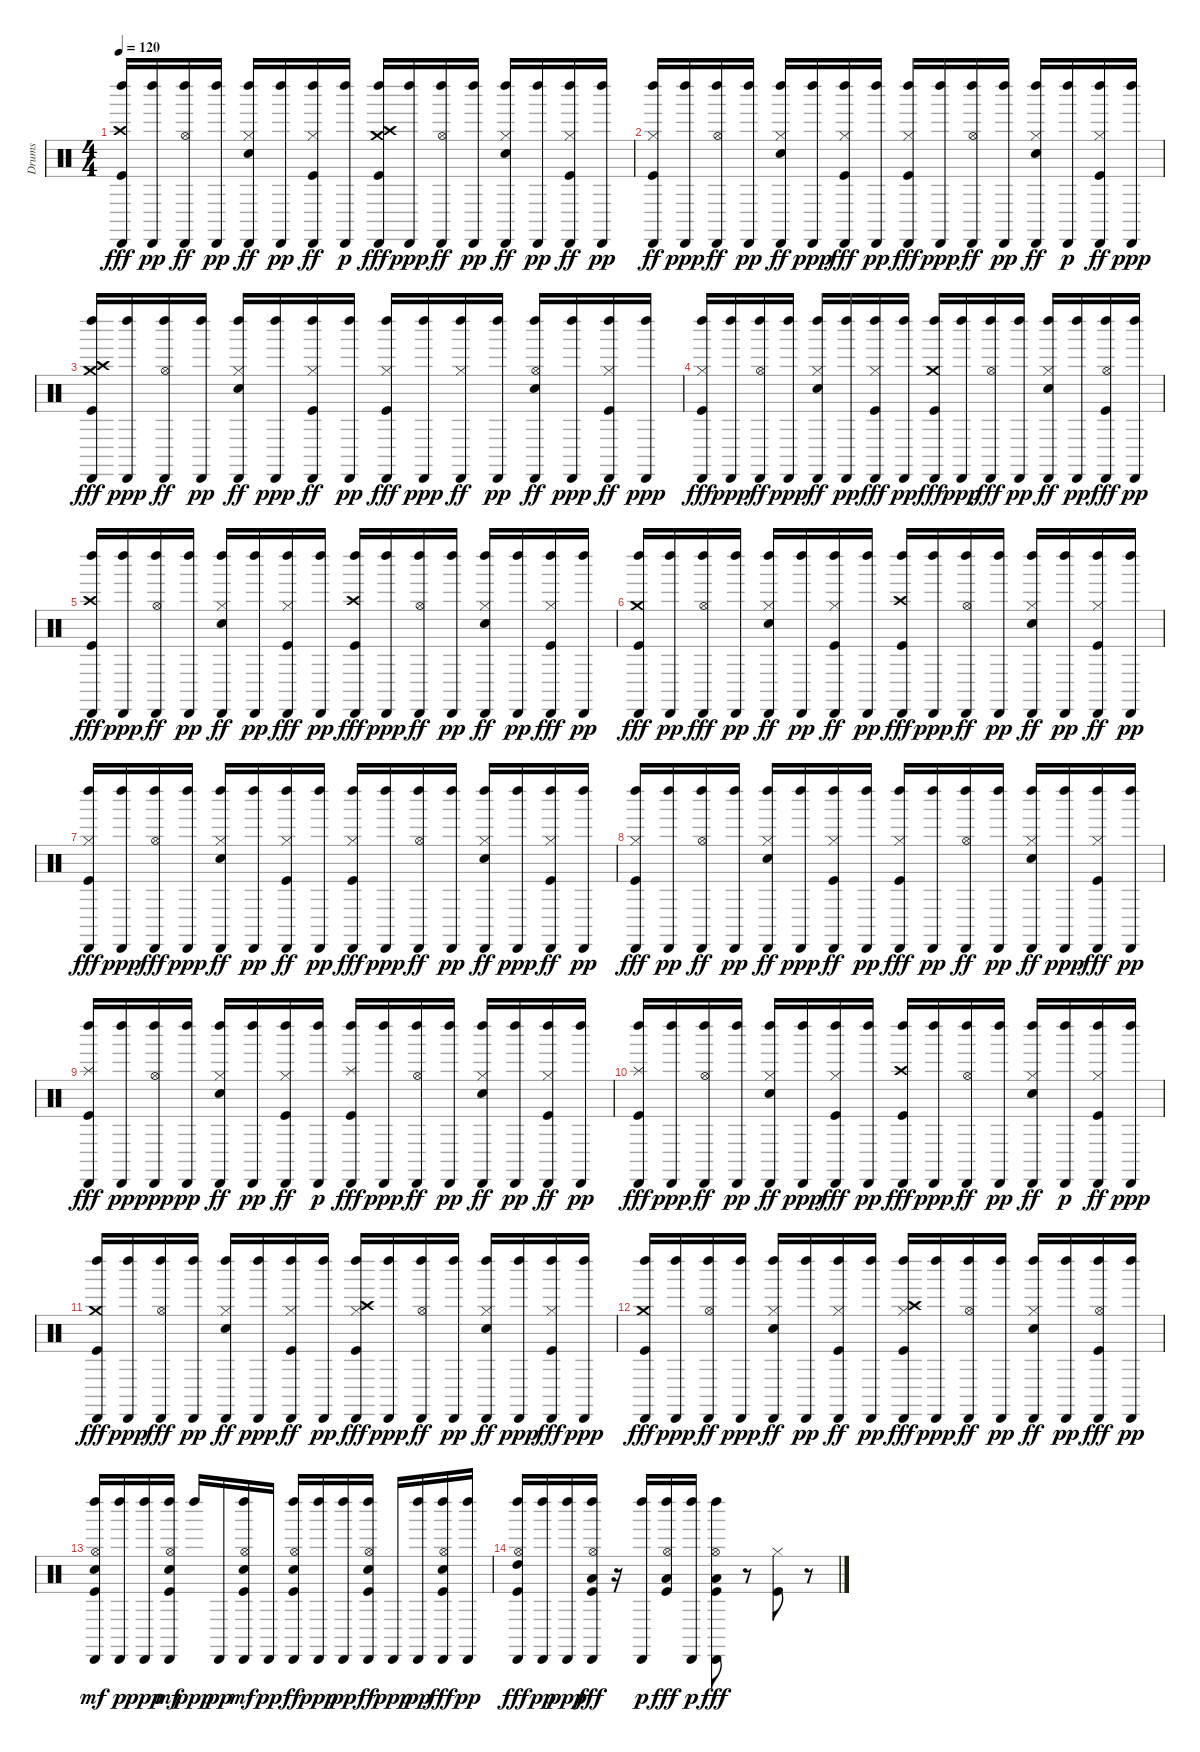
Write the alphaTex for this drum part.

\track ("Drums" "Drums") {instrument percussion}
\staff {score}
\articulation defaults
\ts (4 4)
\tempo 120
\clef neutral
\ks c
("Left Maraca (hit)" "Cabasa (hit)" "Crash high (hit)" "Kick (hit)").16{dy fff} ("Left Maraca (hit)" "Cabasa (hit)").16{dy pp} ("Left Maraca (hit)" "Cabasa (hit)" "Hi-Hat (open)").16{dy ff} ("Left Maraca (hit)" "Cabasa (hit)").16{dy pp} ("Left Maraca (hit)" "Cabasa (hit)" "Hi-Hat (closed)" "Electric Snare (hit)").16{dy ff} ("Left Maraca (hit)" "Cabasa (hit)").16{dy pp} ("Left Maraca (hit)" "Cabasa (hit)" "Hi-Hat (closed)" "Kick (hit)").16{dy ff} ("Left Maraca (hit)" "Cabasa (hit)").16{dy p} ("Left Maraca (hit)" "Cabasa (hit)" "Crash medium (hit)" "Crash high (hit)" "Kick (hit)").16{dy fff} ("Left Maraca (hit)" "Cabasa (hit)").16{dy ppp} ("Left Maraca (hit)" "Cabasa (hit)" "Hi-Hat (open)").16{dy ff} ("Left Maraca (hit)" "Cabasa (hit)").16{dy pp} ("Left Maraca (hit)" "Cabasa (hit)" "Hi-Hat (closed)" "Electric Snare (hit)").16{dy ff} ("Left Maraca (hit)" "Cabasa (hit)").16{dy pp} ("Left Maraca (hit)" "Cabasa (hit)" "Hi-Hat (closed)" "Kick (hit)").16{dy ff} ("Left Maraca (hit)" "Cabasa (hit)").16{dy pp} |
("Left Maraca (hit)" "Cabasa (hit)" "Hi-Hat (closed)" "Kick (hit)").16{dy ff} ("Left Maraca (hit)" "Cabasa (hit)").16{dy ppp} ("Left Maraca (hit)" "Cabasa (hit)" "Hi-Hat (open)").16{dy ff} ("Left Maraca (hit)" "Cabasa (hit)").16{dy pp} ("Left Maraca (hit)" "Cabasa (hit)" "Hi-Hat (closed)" "Electric Snare (hit)").16{dy ff} ("Left Maraca (hit)" "Cabasa (hit)").16{dy ppp} ("Left Maraca (hit)" "Cabasa (hit)" "Hi-Hat (closed)" "Kick (hit)").16{dy fff} ("Left Maraca (hit)" "Cabasa (hit)").16{dy pp} ("Left Maraca (hit)" "Cabasa (hit)" "Hi-Hat (closed)" "Kick (hit)").16{dy fff} ("Left Maraca (hit)" "Cabasa (hit)").16{dy ppp} ("Left Maraca (hit)" "Cabasa (hit)" "Hi-Hat (open)").16{dy ff} ("Left Maraca (hit)" "Cabasa (hit)").16{dy pp} ("Left Maraca (hit)" "Cabasa (hit)" "Hi-Hat (closed)" "Electric Snare (hit)").16{dy ff} ("Left Maraca (hit)" "Cabasa (hit)").16{dy p} ("Left Maraca (hit)" "Cabasa (hit)" "Hi-Hat (closed)" "Kick (hit)").16{dy ff} ("Left Maraca (hit)" "Cabasa (hit)").16{dy ppp} |
("Left Maraca (hit)" "Cabasa (hit)" "Crash medium (hit)" "Crash high (hit)" "Kick (hit)").16{dy fff} ("Left Maraca (hit)" "Cabasa (hit)").16{dy ppp} ("Left Maraca (hit)" "Cabasa (hit)" "Hi-Hat (open)").16{dy ff} ("Left Maraca (hit)" "Cabasa (hit)").16{dy pp} ("Left Maraca (hit)" "Cabasa (hit)" "Hi-Hat (closed)" "Electric Snare (hit)").16{dy ff} ("Left Maraca (hit)" "Cabasa (hit)").16{dy ppp} ("Left Maraca (hit)" "Cabasa (hit)" "Hi-Hat (closed)" "Kick (hit)").16{dy ff} ("Left Maraca (hit)" "Cabasa (hit)").16{dy pp} ("Left Maraca (hit)" "Cabasa (hit)" "Hi-Hat (closed)" "Kick (hit)").16{dy fff} ("Left Maraca (hit)" "Cabasa (hit)").16{dy ppp} ("Left Maraca (hit)" "Cabasa (hit)" "Hi-Hat (closed)").16{dy ff} ("Left Maraca (hit)" "Cabasa (hit)").16{dy pp} ("Left Maraca (hit)" "Cabasa (hit)" "Hi-Hat (open)" "Electric Snare (hit)").16{dy ff} ("Left Maraca (hit)" "Cabasa (hit)").16{dy ppp} ("Left Maraca (hit)" "Cabasa (hit)" "Hi-Hat (closed)" "Kick (hit)").16{dy ff} ("Left Maraca (hit)" "Cabasa (hit)").16{dy ppp} |
("Left Maraca (hit)" "Cabasa (hit)" "Hi-Hat (closed)" "Kick (hit)").16{dy fff} ("Left Maraca (hit)" "Cabasa (hit)").16{dy ppp} ("Left Maraca (hit)" "Cabasa (hit)" "Hi-Hat (open)").16{dy ff} ("Left Maraca (hit)" "Cabasa (hit)").16{dy ppp} ("Left Maraca (hit)" "Cabasa (hit)" "Hi-Hat (closed)" "Electric Snare (hit)").16{dy ff} ("Left Maraca (hit)" "Cabasa (hit)").16{dy pp} ("Left Maraca (hit)" "Cabasa (hit)" "Hi-Hat (closed)" "Kick (hit)").16{dy fff} ("Left Maraca (hit)" "Cabasa (hit)").16{dy pp} ("Left Maraca (hit)" "Cabasa (hit)" "Crash medium (hit)" "Kick (hit)").16{dy fff} ("Left Maraca (hit)" "Cabasa (hit)").16{dy ppp} ("Left Maraca (hit)" "Cabasa (hit)" "Hi-Hat (open)").16{dy fff} ("Left Maraca (hit)" "Cabasa (hit)").16{dy pp} ("Left Maraca (hit)" "Cabasa (hit)" "Hi-Hat (closed)" "Electric Snare (hit)").16{dy ff} ("Left Maraca (hit)" "Cabasa (hit)").16{dy pp} ("Left Maraca (hit)" "Cabasa (hit)" "Hi-Hat (open)" "Kick (hit)").16{dy fff} ("Left Maraca (hit)" "Cabasa (hit)").16{dy pp} |
("Left Maraca (hit)" "Cabasa (hit)" "Crash high (hit)" "Kick (hit)").16{dy fff} ("Left Maraca (hit)" "Cabasa (hit)").16{dy ppp} ("Left Maraca (hit)" "Cabasa (hit)" "Hi-Hat (open)").16{dy ff} ("Left Maraca (hit)" "Cabasa (hit)").16{dy pp} ("Left Maraca (hit)" "Cabasa (hit)" "Hi-Hat (closed)" "Electric Snare (hit)").16{dy ff} ("Left Maraca (hit)" "Cabasa (hit)").16{dy pp} ("Left Maraca (hit)" "Cabasa (hit)" "Hi-Hat (closed)" "Kick (hit)").16{dy fff} ("Left Maraca (hit)" "Cabasa (hit)").16{dy pp} ("Left Maraca (hit)" "Cabasa (hit)" "Crash high (hit)" "Kick (hit)").16{dy fff} ("Left Maraca (hit)" "Cabasa (hit)").16{dy ppp} ("Left Maraca (hit)" "Cabasa (hit)" "Hi-Hat (open)").16{dy ff} ("Left Maraca (hit)" "Cabasa (hit)").16{dy pp} ("Left Maraca (hit)" "Cabasa (hit)" "Hi-Hat (closed)" "Electric Snare (hit)").16{dy ff} ("Left Maraca (hit)" "Cabasa (hit)").16{dy pp} ("Left Maraca (hit)" "Cabasa (hit)" "Hi-Hat (closed)" "Kick (hit)").16{dy fff} ("Left Maraca (hit)" "Cabasa (hit)").16{dy pp} |
("Left Maraca (hit)" "Cabasa (hit)" "Crash medium (hit)" "Kick (hit)").16{dy fff} ("Left Maraca (hit)" "Cabasa (hit)").16{dy pp} ("Left Maraca (hit)" "Cabasa (hit)" "Hi-Hat (open)").16{dy fff} ("Left Maraca (hit)" "Cabasa (hit)").16{dy pp} ("Left Maraca (hit)" "Cabasa (hit)" "Hi-Hat (closed)" "Electric Snare (hit)").16{dy ff} ("Left Maraca (hit)" "Cabasa (hit)").16{dy pp} ("Left Maraca (hit)" "Cabasa (hit)" "Hi-Hat (closed)" "Kick (hit)").16{dy ff} ("Left Maraca (hit)" "Cabasa (hit)").16{dy pp} ("Left Maraca (hit)" "Cabasa (hit)" "Crash high (hit)" "Kick (hit)").16{dy fff} ("Left Maraca (hit)" "Cabasa (hit)").16{dy ppp} ("Left Maraca (hit)" "Cabasa (hit)" "Hi-Hat (open)").16{dy ff} ("Left Maraca (hit)" "Cabasa (hit)").16{dy pp} ("Left Maraca (hit)" "Cabasa (hit)" "Hi-Hat (closed)" "Electric Snare (hit)").16{dy ff} ("Left Maraca (hit)" "Cabasa (hit)").16{dy pp} ("Left Maraca (hit)" "Cabasa (hit)" "Hi-Hat (closed)" "Kick (hit)").16{dy ff} ("Left Maraca (hit)" "Cabasa (hit)").16{dy pp} |
("Left Maraca (hit)" "Cabasa (hit)" "Hi-Hat (closed)" "Kick (hit)").16{dy fff} ("Left Maraca (hit)" "Cabasa (hit)").16{dy ppp} ("Left Maraca (hit)" "Cabasa (hit)" "Hi-Hat (open)").16{dy fff} ("Left Maraca (hit)" "Cabasa (hit)").16{dy ppp} ("Left Maraca (hit)" "Cabasa (hit)" "Hi-Hat (closed)" "Electric Snare (hit)").16{dy ff} ("Left Maraca (hit)" "Cabasa (hit)").16{dy pp} ("Left Maraca (hit)" "Cabasa (hit)" "Hi-Hat (closed)" "Kick (hit)").16{dy ff} ("Left Maraca (hit)" "Cabasa (hit)").16{dy pp} ("Left Maraca (hit)" "Cabasa (hit)" "Hi-Hat (closed)" "Kick (hit)").16{dy fff} ("Left Maraca (hit)" "Cabasa (hit)").16{dy ppp} ("Left Maraca (hit)" "Cabasa (hit)" "Hi-Hat (open)").16{dy ff} ("Left Maraca (hit)" "Cabasa (hit)").16{dy pp} ("Left Maraca (hit)" "Cabasa (hit)" "Hi-Hat (closed)" "Electric Snare (hit)").16{dy ff} ("Left Maraca (hit)" "Cabasa (hit)").16{dy ppp} ("Left Maraca (hit)" "Cabasa (hit)" "Hi-Hat (closed)" "Kick (hit)").16{dy ff} ("Left Maraca (hit)" "Cabasa (hit)").16{dy pp} |
("Left Maraca (hit)" "Cabasa (hit)" "Hi-Hat (closed)" "Kick (hit)").16{dy fff} ("Left Maraca (hit)" "Cabasa (hit)").16{dy pp} ("Left Maraca (hit)" "Cabasa (hit)" "Hi-Hat (open)").16{dy ff} ("Left Maraca (hit)" "Cabasa (hit)").16{dy pp} ("Left Maraca (hit)" "Cabasa (hit)" "Hi-Hat (closed)" "Electric Snare (hit)").16{dy ff} ("Left Maraca (hit)" "Cabasa (hit)").16{dy ppp} ("Left Maraca (hit)" "Cabasa (hit)" "Hi-Hat (closed)" "Kick (hit)").16{dy ff} ("Left Maraca (hit)" "Cabasa (hit)").16{dy pp} ("Left Maraca (hit)" "Cabasa (hit)" "Hi-Hat (closed)" "Kick (hit)").16{dy fff} ("Left Maraca (hit)" "Cabasa (hit)").16{dy pp} ("Left Maraca (hit)" "Cabasa (hit)" "Hi-Hat (open)").16{dy ff} ("Left Maraca (hit)" "Cabasa (hit)").16{dy pp} ("Left Maraca (hit)" "Cabasa (hit)" "Hi-Hat (closed)" "Electric Snare (hit)").16{dy ff} ("Left Maraca (hit)" "Cabasa (hit)").16{dy ppp} ("Left Maraca (hit)" "Cabasa (hit)" "Hi-Hat (closed)" "Kick (hit)").16{dy fff} ("Left Maraca (hit)" "Cabasa (hit)").16{dy pp} |
("Left Maraca (hit)" "Cabasa (hit)" "Splash (hit)" "Kick (hit)").16{dy fff} ("Left Maraca (hit)" "Cabasa (hit)").16{dy pp} ("Left Maraca (hit)" "Cabasa (hit)" "Hi-Hat (open)").16{dy ppp} ("Left Maraca (hit)" "Cabasa (hit)").16{dy pp} ("Left Maraca (hit)" "Cabasa (hit)" "Hi-Hat (closed)" "Electric Snare (hit)").16{dy ff} ("Left Maraca (hit)" "Cabasa (hit)").16{dy pp} ("Left Maraca (hit)" "Cabasa (hit)" "Hi-Hat (closed)" "Kick (hit)").16{dy ff} ("Left Maraca (hit)" "Cabasa (hit)").16{dy p} ("Left Maraca (hit)" "Cabasa (hit)" "Splash (hit)" "Kick (hit)").16{dy fff} ("Left Maraca (hit)" "Cabasa (hit)").16{dy ppp} ("Left Maraca (hit)" "Cabasa (hit)" "Hi-Hat (open)").16{dy ff} ("Left Maraca (hit)" "Cabasa (hit)").16{dy pp} ("Left Maraca (hit)" "Cabasa (hit)" "Hi-Hat (closed)" "Electric Snare (hit)").16{dy ff} ("Left Maraca (hit)" "Cabasa (hit)").16{dy pp} ("Left Maraca (hit)" "Cabasa (hit)" "Hi-Hat (closed)" "Kick (hit)").16{dy ff} ("Left Maraca (hit)" "Cabasa (hit)").16{dy pp} |
("Left Maraca (hit)" "Cabasa (hit)" "Splash (hit)" "Kick (hit)").16{dy fff} ("Left Maraca (hit)" "Cabasa (hit)").16{dy ppp} ("Left Maraca (hit)" "Cabasa (hit)" "Hi-Hat (open)").16{dy ff} ("Left Maraca (hit)" "Cabasa (hit)").16{dy pp} ("Left Maraca (hit)" "Cabasa (hit)" "Hi-Hat (closed)" "Electric Snare (hit)").16{dy ff} ("Left Maraca (hit)" "Cabasa (hit)").16{dy ppp} ("Left Maraca (hit)" "Cabasa (hit)" "Hi-Hat (closed)" "Kick (hit)").16{dy fff} ("Left Maraca (hit)" "Cabasa (hit)").16{dy pp} ("Left Maraca (hit)" "Cabasa (hit)" "Crash high (hit)" "Kick (hit)").16{dy fff} ("Left Maraca (hit)" "Cabasa (hit)").16{dy ppp} ("Left Maraca (hit)" "Cabasa (hit)" "Hi-Hat (open)").16{dy ff} ("Left Maraca (hit)" "Cabasa (hit)").16{dy pp} ("Left Maraca (hit)" "Cabasa (hit)" "Hi-Hat (closed)" "Electric Snare (hit)").16{dy ff} ("Left Maraca (hit)" "Cabasa (hit)").16{dy p} ("Left Maraca (hit)" "Cabasa (hit)" "Hi-Hat (closed)" "Kick (hit)").16{dy ff} ("Left Maraca (hit)" "Cabasa (hit)").16{dy ppp} |
("Left Maraca (hit)" "Cabasa (hit)" "Crash medium (hit)" "Kick (hit)").16{dy fff} ("Left Maraca (hit)" "Cabasa (hit)").16{dy ppp} ("Left Maraca (hit)" "Cabasa (hit)" "Hi-Hat (open)").16{dy fff} ("Left Maraca (hit)" "Cabasa (hit)").16{dy pp} ("Left Maraca (hit)" "Cabasa (hit)" "Hi-Hat (closed)" "Electric Snare (hit)").16{dy ff} ("Left Maraca (hit)" "Cabasa (hit)").16{dy ppp} ("Left Maraca (hit)" "Cabasa (hit)" "Hi-Hat (closed)" "Kick (hit)").16{dy ff} ("Left Maraca (hit)" "Cabasa (hit)").16{dy pp} ("Left Maraca (hit)" "Cabasa (hit)" "Crash high (hit)" "Hi-Hat (closed)" "Kick (hit)").16{dy fff} ("Left Maraca (hit)" "Cabasa (hit)").16{dy ppp} ("Left Maraca (hit)" "Cabasa (hit)" "Hi-Hat (open)").16{dy ff} ("Left Maraca (hit)" "Cabasa (hit)").16{dy pp} ("Left Maraca (hit)" "Cabasa (hit)" "Hi-Hat (closed)" "Electric Snare (hit)").16{dy ff} ("Left Maraca (hit)" "Cabasa (hit)").16{dy ppp} ("Left Maraca (hit)" "Cabasa (hit)" "Hi-Hat (closed)" "Kick (hit)").16{dy fff} ("Left Maraca (hit)" "Cabasa (hit)").16{dy ppp} |
("Left Maraca (hit)" "Cabasa (hit)" "Crash medium (hit)" "Kick (hit)").16{dy fff} ("Left Maraca (hit)" "Cabasa (hit)").16{dy ppp} ("Left Maraca (hit)" "Cabasa (hit)" "Hi-Hat (open)").16{dy ff} ("Left Maraca (hit)" "Cabasa (hit)").16{dy ppp} ("Left Maraca (hit)" "Cabasa (hit)" "Hi-Hat (closed)" "Electric Snare (hit)").16{dy ff} ("Left Maraca (hit)" "Cabasa (hit)").16{dy pp} ("Left Maraca (hit)" "Cabasa (hit)" "Hi-Hat (closed)" "Kick (hit)").16{dy ff} ("Left Maraca (hit)" "Cabasa (hit)").16{dy pp} ("Left Maraca (hit)" "Cabasa (hit)" "Crash high (hit)" "Hi-Hat (closed)" "Kick (hit)").16{dy fff} ("Left Maraca (hit)" "Cabasa (hit)").16{dy ppp} ("Left Maraca (hit)" "Cabasa (hit)" "Hi-Hat (open)").16{dy ff} ("Left Maraca (hit)" "Cabasa (hit)").16{dy pp} ("Left Maraca (hit)" "Cabasa (hit)" "Hi-Hat (closed)" "Electric Snare (hit)").16{dy ff} ("Left Maraca (hit)" "Cabasa (hit)").16{dy pp} ("Left Maraca (hit)" "Cabasa (hit)" "Hi-Hat (open)" "Kick (hit)").16{dy fff} ("Left Maraca (hit)" "Cabasa (hit)").16{dy pp} |
("Left Maraca (hit)" "Cabasa (hit)" "Hi-Hat (open)" "Electric Snare (hit)" "Kick (hit)").16{dy mf} ("Left Maraca (hit)" "Cabasa (hit)").16{dy p} ("Left Maraca (hit)" "Cabasa (hit)").16{dy ppp} ("Left Maraca (hit)" "Cabasa (hit)" "Hi-Hat (open)" "Electric Snare (hit)" "Kick (hit)").16{dy mf} "Left Maraca (hit)".16{dy ppp} "Cabasa (hit)".16{dy pp} ("Left Maraca (hit)" "Cabasa (hit)" "Hi-Hat (open)" "Electric Snare (hit)" "Kick (hit)").16{dy mf} "Cabasa (hit)".16{dy pp} ("Left Maraca (hit)" "Cabasa (hit)" "Hi-Hat (open)" "Electric Snare (hit)" "Kick (hit)").16{dy ff} ("Left Maraca (hit)" "Cabasa (hit)").16{dy ppp} ("Left Maraca (hit)" "Cabasa (hit)").16{dy pp} ("Left Maraca (hit)" "Cabasa (hit)" "Hi-Hat (open)" "Electric Snare (hit)" "Kick (hit)").16{dy ff} "Cabasa (hit)".16{dy ppp} ("Left Maraca (hit)" "Cabasa (hit)").16{dy pp} ("Left Maraca (hit)" "Cabasa (hit)" "Hi-Hat (open)" "Electric Snare (hit)" "Kick (hit)").16{dy fff} ("Left Maraca (hit)" "Cabasa (hit)").16{dy pp} |
("Left Maraca (hit)" "Cabasa (hit)" "Hi-Hat (open)" "High Tom (hit)" "Kick (hit)").16{dy fff} ("Left Maraca (hit)" "Cabasa (hit)").16{dy pp} ("Left Maraca (hit)" "Cabasa (hit)").16{dy ppp} ("Left Maraca (hit)" "Cabasa (hit)" "Hi-Hat (open)" "Low Tom (hit)" "Kick (hit)").16{dy fff} r.16 ("Left Maraca (hit)" "Cabasa (hit)").16{dy p} ("Left Maraca (hit)" "Hi-Hat (open)" "Low Floor Tom (hit)" "Kick (hit)").16{dy fff} ("Left Maraca (hit)" "Cabasa (hit)").16{dy p} ("Left Maraca (hit)" "Cabasa (hit)" "Hi-Hat (open)" "Low Floor Tom (hit)" "Kick (hit)").8{dy fff} r.8 ("Hi-Hat (closed)" "Kick (hit)").8 r.8
